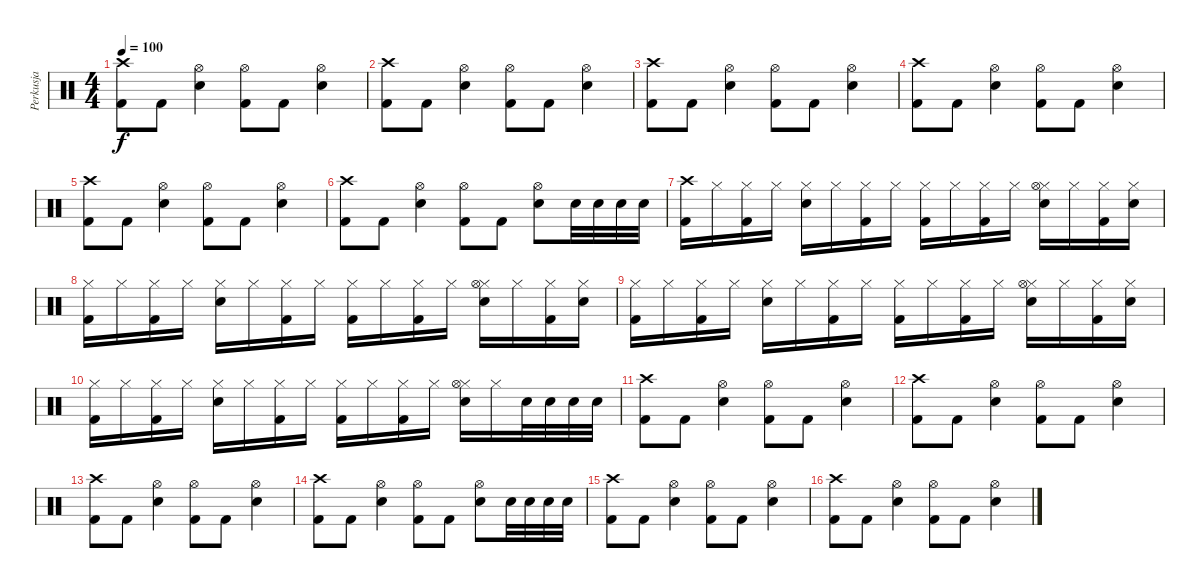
\track ("Perkusja" "Perkusja") {instrument percussion}
\staff {score}
\articulation defaults
\ts (4 4)
\tempo 100
\clef neutral
\ks c
("Crash high (hit)" "Kick (hit) 2").8{dy f} "Kick (hit) 2".8 ("Hi-Hat (open)" "Electric Snare (hit)").4 ("Hi-Hat (open)" "Kick (hit) 2").8 "Kick (hit) 2".8 ("Hi-Hat (open)" "Electric Snare (hit)").4 |
("Crash high (hit)" "Kick (hit) 2").8 "Kick (hit) 2".8 ("Hi-Hat (open)" "Electric Snare (hit)").4 ("Hi-Hat (open)" "Kick (hit) 2").8 "Kick (hit) 2".8 ("Hi-Hat (open)" "Electric Snare (hit)").4 |
("Crash high (hit)" "Kick (hit) 2").8 "Kick (hit) 2".8 ("Hi-Hat (open)" "Electric Snare (hit)").4 ("Hi-Hat (open)" "Kick (hit) 2").8 "Kick (hit) 2".8 ("Hi-Hat (open)" "Electric Snare (hit)").4 |
("Crash high (hit)" "Kick (hit) 2").8 "Kick (hit) 2".8 ("Hi-Hat (open)" "Electric Snare (hit)").4 ("Hi-Hat (open)" "Kick (hit) 2").8 "Kick (hit) 2".8 ("Hi-Hat (open)" "Electric Snare (hit)").4 |
("Crash high (hit)" "Kick (hit) 2").8 "Kick (hit) 2".8 ("Hi-Hat (open)" "Electric Snare (hit)").4 ("Hi-Hat (open)" "Kick (hit) 2").8 "Kick (hit) 2".8 ("Hi-Hat (open)" "Electric Snare (hit)").4 |
("Crash high (hit)" "Kick (hit) 2").8 "Kick (hit) 2".8 ("Hi-Hat (open)" "Electric Snare (hit)").4 ("Hi-Hat (open)" "Kick (hit) 2").8 "Kick (hit) 2".8 ("Hi-Hat (open)" "Electric Snare (hit)").8 "Electric Snare (hit)".32 "Electric Snare (hit)".32 "Electric Snare (hit)".32 "Electric Snare (hit)".32 |
("Crash high (hit)" "Kick (hit) 2").16 "Hi-Hat (closed)".16 ("Hi-Hat (closed)" "Kick (hit) 2").16 "Hi-Hat (closed)".16 ("Hi-Hat (closed)" "Electric Snare (hit)").16 "Hi-Hat (closed)".16 ("Hi-Hat (closed)" "Kick (hit) 2").16 "Hi-Hat (closed)".16 ("Hi-Hat (closed)" "Kick (hit) 2").16 "Hi-Hat (closed)".16 ("Hi-Hat (closed)" "Kick (hit) 2").16 "Hi-Hat (closed)".16 ("Hi-Hat (closed)" "Hi-Hat (open)" "Electric Snare (hit)").16 "Hi-Hat (closed)".16 ("Hi-Hat (closed)" "Kick (hit) 2").16 ("Hi-Hat (closed)" "Electric Snare (hit)").16 |
("Hi-Hat (closed)" "Kick (hit) 2").16 "Hi-Hat (closed)".16 ("Hi-Hat (closed)" "Kick (hit) 2").16 "Hi-Hat (closed)".16 ("Hi-Hat (closed)" "Electric Snare (hit)").16 "Hi-Hat (closed)".16 ("Hi-Hat (closed)" "Kick (hit) 2").16 "Hi-Hat (closed)".16 ("Hi-Hat (closed)" "Kick (hit) 2").16 "Hi-Hat (closed)".16 ("Hi-Hat (closed)" "Kick (hit) 2").16 "Hi-Hat (closed)".16 ("Hi-Hat (closed)" "Hi-Hat (open)" "Electric Snare (hit)").16 "Hi-Hat (closed)".16 ("Hi-Hat (closed)" "Kick (hit) 2").16 ("Hi-Hat (closed)" "Electric Snare (hit)").16 |
("Hi-Hat (closed)" "Kick (hit) 2").16 "Hi-Hat (closed)".16 ("Hi-Hat (closed)" "Kick (hit) 2").16 "Hi-Hat (closed)".16 ("Hi-Hat (closed)" "Electric Snare (hit)").16 "Hi-Hat (closed)".16 ("Hi-Hat (closed)" "Kick (hit) 2").16 "Hi-Hat (closed)".16 ("Hi-Hat (closed)" "Kick (hit) 2").16 "Hi-Hat (closed)".16 ("Hi-Hat (closed)" "Kick (hit) 2").16 "Hi-Hat (closed)".16 ("Hi-Hat (closed)" "Hi-Hat (open)" "Electric Snare (hit)").16 "Hi-Hat (closed)".16 ("Hi-Hat (closed)" "Kick (hit) 2").16 ("Hi-Hat (closed)" "Electric Snare (hit)").16 |
("Hi-Hat (closed)" "Kick (hit) 2").16 "Hi-Hat (closed)".16 ("Hi-Hat (closed)" "Kick (hit) 2").16 "Hi-Hat (closed)".16 ("Hi-Hat (closed)" "Electric Snare (hit)").16 "Hi-Hat (closed)".16 ("Hi-Hat (closed)" "Kick (hit) 2").16 "Hi-Hat (closed)".16 ("Hi-Hat (closed)" "Kick (hit) 2").16 "Hi-Hat (closed)".16 ("Hi-Hat (closed)" "Kick (hit) 2").16 "Hi-Hat (closed)".16 ("Hi-Hat (closed)" "Hi-Hat (open)" "Electric Snare (hit)").16 "Hi-Hat (closed)".16 "Electric Snare (hit)".32 "Electric Snare (hit)".32 "Electric Snare (hit)".32 "Electric Snare (hit)".32 |
("Crash high (hit)" "Kick (hit) 2").8 "Kick (hit) 2".8 ("Hi-Hat (open)" "Electric Snare (hit)").4 ("Hi-Hat (open)" "Kick (hit) 2").8 "Kick (hit) 2".8 ("Hi-Hat (open)" "Electric Snare (hit)").4 |
("Crash high (hit)" "Kick (hit) 2").8 "Kick (hit) 2".8 ("Hi-Hat (open)" "Electric Snare (hit)").4 ("Hi-Hat (open)" "Kick (hit) 2").8 "Kick (hit) 2".8 ("Hi-Hat (open)" "Electric Snare (hit)").4 |
("Crash high (hit)" "Kick (hit) 2").8 "Kick (hit) 2".8 ("Hi-Hat (open)" "Electric Snare (hit)").4 ("Hi-Hat (open)" "Kick (hit) 2").8 "Kick (hit) 2".8 ("Hi-Hat (open)" "Electric Snare (hit)").4 |
("Crash high (hit)" "Kick (hit) 2").8 "Kick (hit) 2".8 ("Hi-Hat (open)" "Electric Snare (hit)").4 ("Hi-Hat (open)" "Kick (hit) 2").8 "Kick (hit) 2".8 ("Hi-Hat (open)" "Electric Snare (hit)").8 "Electric Snare (hit)".32 "Electric Snare (hit)".32 "Electric Snare (hit)".32 "Electric Snare (hit)".32 |
("Crash high (hit)" "Kick (hit) 2").8 "Kick (hit) 2".8 ("Hi-Hat (open)" "Electric Snare (hit)").4 ("Hi-Hat (open)" "Kick (hit) 2").8 "Kick (hit) 2".8 ("Hi-Hat (open)" "Electric Snare (hit)").4 |
("Crash high (hit)" "Kick (hit) 2").8 "Kick (hit) 2".8 ("Hi-Hat (open)" "Electric Snare (hit)").4 ("Hi-Hat (open)" "Kick (hit) 2").8 "Kick (hit) 2".8 ("Hi-Hat (open)" "Electric Snare (hit)").4
